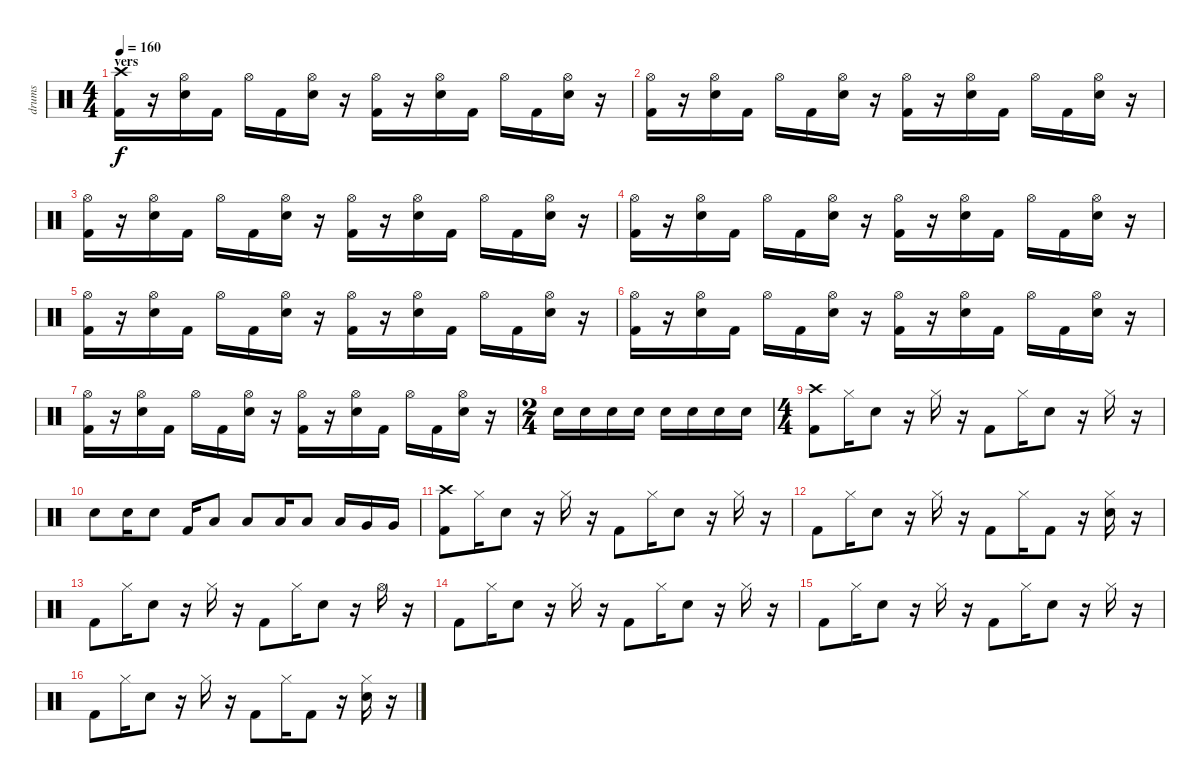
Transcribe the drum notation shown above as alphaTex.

\track ("drums" "drums") {instrument percussion}
\staff {score}
\articulation defaults
\ts (4 4)
\section ("" "vers")
\tempo 160
\clef neutral
\ks c
("Crash high (hit)" "Kick (hit) 2").16{dy f} r.16 ("Hi-Hat (open)" "Electric Snare (hit)").16 "Kick (hit) 2".16 "Hi-Hat (open)".16 "Kick (hit) 2".16 ("Hi-Hat (open)" "Electric Snare (hit)").16 r.16 ("Hi-Hat (open)" "Kick (hit) 2").16 r.16 ("Hi-Hat (open)" "Electric Snare (hit)").16 "Kick (hit) 2".16 "Hi-Hat (open)".16 "Kick (hit) 2".16 ("Hi-Hat (open)" "Electric Snare (hit)").16 r.16 |
("Hi-Hat (open)" "Kick (hit) 2").16 r.16 ("Hi-Hat (open)" "Electric Snare (hit)").16 "Kick (hit) 2".16 "Hi-Hat (open)".16 "Kick (hit) 2".16 ("Hi-Hat (open)" "Electric Snare (hit)").16 r.16 ("Hi-Hat (open)" "Kick (hit) 2").16 r.16 ("Hi-Hat (open)" "Electric Snare (hit)").16 "Kick (hit) 2".16 "Hi-Hat (open)".16 "Kick (hit) 2".16 ("Hi-Hat (open)" "Electric Snare (hit)").16 r.16 |
("Hi-Hat (open)" "Kick (hit) 2").16 r.16 ("Hi-Hat (open)" "Electric Snare (hit)").16 "Kick (hit) 2".16 "Hi-Hat (open)".16 "Kick (hit) 2".16 ("Hi-Hat (open)" "Electric Snare (hit)").16 r.16 ("Hi-Hat (open)" "Kick (hit) 2").16 r.16 ("Hi-Hat (open)" "Electric Snare (hit)").16 "Kick (hit) 2".16 "Hi-Hat (open)".16 "Kick (hit) 2".16 ("Hi-Hat (open)" "Electric Snare (hit)").16 r.16 |
("Hi-Hat (open)" "Kick (hit) 2").16 r.16 ("Hi-Hat (open)" "Electric Snare (hit)").16 "Kick (hit) 2".16 "Hi-Hat (open)".16 "Kick (hit) 2".16 ("Hi-Hat (open)" "Electric Snare (hit)").16 r.16 ("Hi-Hat (open)" "Kick (hit) 2").16 r.16 ("Hi-Hat (open)" "Electric Snare (hit)").16 "Kick (hit) 2".16 "Hi-Hat (open)".16 "Kick (hit) 2".16 ("Hi-Hat (open)" "Electric Snare (hit)").16 r.16 |
("Hi-Hat (open)" "Kick (hit) 2").16 r.16 ("Hi-Hat (open)" "Electric Snare (hit)").16 "Kick (hit) 2".16 "Hi-Hat (open)".16 "Kick (hit) 2".16 ("Hi-Hat (open)" "Electric Snare (hit)").16 r.16 ("Hi-Hat (open)" "Kick (hit) 2").16 r.16 ("Hi-Hat (open)" "Electric Snare (hit)").16 "Kick (hit) 2".16 "Hi-Hat (open)".16 "Kick (hit) 2".16 ("Hi-Hat (open)" "Electric Snare (hit)").16 r.16 |
("Hi-Hat (open)" "Kick (hit) 2").16 r.16 ("Hi-Hat (open)" "Electric Snare (hit)").16 "Kick (hit) 2".16 "Hi-Hat (open)".16 "Kick (hit) 2".16 ("Hi-Hat (open)" "Electric Snare (hit)").16 r.16 ("Hi-Hat (open)" "Kick (hit) 2").16 r.16 ("Hi-Hat (open)" "Electric Snare (hit)").16 "Kick (hit) 2".16 "Hi-Hat (open)".16 "Kick (hit) 2".16 ("Hi-Hat (open)" "Electric Snare (hit)").16 r.16 |
("Hi-Hat (open)" "Kick (hit) 2").16 r.16 ("Hi-Hat (open)" "Electric Snare (hit)").16 "Kick (hit) 2".16 "Hi-Hat (open)".16 "Kick (hit) 2".16 ("Hi-Hat (open)" "Electric Snare (hit)").16 r.16 ("Hi-Hat (open)" "Kick (hit) 2").16 r.16 ("Hi-Hat (open)" "Electric Snare (hit)").16 "Kick (hit) 2".16 "Hi-Hat (open)".16 "Kick (hit) 2".16 ("Hi-Hat (open)" "Electric Snare (hit)").16 r.16 |
\ts (2 4)
"Electric Snare (hit)".16 "Electric Snare (hit)".16 "Electric Snare (hit)".16 "Electric Snare (hit)".16 "Electric Snare (hit)".16 "Electric Snare (hit)".16 "Electric Snare (hit)".16 "Electric Snare (hit)".16 |
\ts (4 4)
("Crash high (hit)" "Kick (hit) 2").8 "Hi-Hat (closed)".16 "Electric Snare (hit)".8 r.16 "Hi-Hat (closed)".16 r.16 "Kick (hit) 2".8 "Hi-Hat (closed)".16 "Electric Snare (hit)".8 r.16 "Hi-Hat (closed)".16 r.16 |
"Electric Snare (hit)".8 "Electric Snare (hit)".16 "Electric Snare (hit)".8 "Kick (hit) 2".16 "Low Tom (hit)".8 "Low Tom (hit)".8 "Low Tom (hit)".16 "Low Tom (hit)".8 "Low Tom (hit)".16 "Very Low Tom (hit)".16 "Very Low Tom (hit)".16 |
\section ("" "")
("Crash high (hit)" "Kick (hit) 2").8 "Hi-Hat (closed)".16 "Electric Snare (hit)".8 r.16 "Hi-Hat (closed)".16 r.16 "Kick (hit) 2".8 "Hi-Hat (closed)".16 "Electric Snare (hit)".8 r.16 "Hi-Hat (closed)".16 r.16 |
"Kick (hit) 2".8 "Hi-Hat (closed)".16 "Electric Snare (hit)".8 r.16 "Hi-Hat (closed)".16 r.16 "Kick (hit) 2".8 "Hi-Hat (closed)".16 "Kick (hit) 2".8 r.16 ("Hi-Hat (closed)" "Electric Snare (hit)").16 r.16 |
"Kick (hit) 2".8 "Hi-Hat (closed)".16 "Electric Snare (hit)".8 r.16 "Hi-Hat (closed)".16 r.16 "Kick (hit) 2".8 "Hi-Hat (closed)".16 "Electric Snare (hit)".8 r.16 "Hi-Hat (open)".16 r.16 |
"Kick (hit) 2".8 "Hi-Hat (closed)".16 "Electric Snare (hit)".8 r.16 "Hi-Hat (closed)".16 r.16 "Kick (hit) 2".8 "Hi-Hat (closed)".16 "Electric Snare (hit)".8 r.16 "Hi-Hat (closed)".16 r.16 |
"Kick (hit) 2".8 "Hi-Hat (closed)".16 "Electric Snare (hit)".8 r.16 "Hi-Hat (closed)".16 r.16 "Kick (hit) 2".8 "Hi-Hat (closed)".16 "Electric Snare (hit)".8 r.16 "Hi-Hat (closed)".16 r.16 |
"Kick (hit) 2".8 "Hi-Hat (closed)".16 "Electric Snare (hit)".8 r.16 "Hi-Hat (closed)".16 r.16 "Kick (hit) 2".8 "Hi-Hat (closed)".16 "Kick (hit) 2".8 r.16 ("Hi-Hat (closed)" "Electric Snare (hit)").16 r.16
